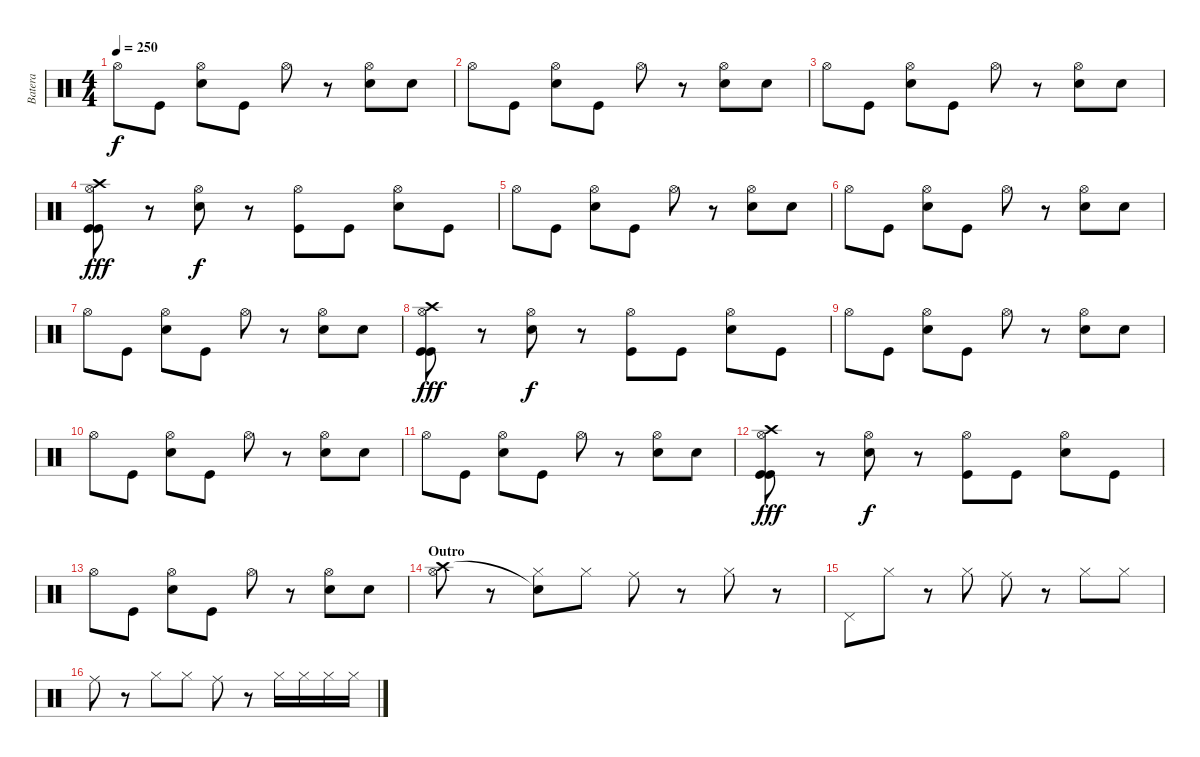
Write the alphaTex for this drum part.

\track ("Batera" "Batera") {instrument percussion}
\staff {score}
\articulation defaults
\ts (4 4)
\tempo 250
\clef neutral
\ks c "Hi-Hat (open)".8{dy f} "Kick (hit)".8
("Hi-Hat (open)" "Electric Snare (hit)").8 "Kick (hit)".8 "Hi-Hat (open)".8 r.8 ("Hi-Hat (open)" "Electric Snare (hit)").8 "Electric Snare (hit)".8 |
"Hi-Hat (open)".8 "Kick (hit)".8 ("Hi-Hat (open)" "Electric Snare (hit)").8 "Kick (hit)".8 "Hi-Hat (open)".8 r.8 ("Hi-Hat (open)" "Electric Snare (hit)").8 "Electric Snare (hit)".8 |
"Hi-Hat (open)".8 "Kick (hit)".8 ("Hi-Hat (open)" "Electric Snare (hit)").8 "Kick (hit)".8 "Hi-Hat (open)".8 r.8 ("Hi-Hat (open)" "Electric Snare (hit)").8 "Electric Snare (hit)".8 |
("Hi-Hat (open)" "Crash high (hit)" "Kick (hit)" "Kick (hit)").8{dy fff} r.8 ("Hi-Hat (open)" "Electric Snare (hit)").8{dy f} r.8 ("Hi-Hat (open)" "Kick (hit)").8 "Kick (hit)".8 ("Hi-Hat (open)" "Electric Snare (hit)").8 "Kick (hit)".8 |
"Hi-Hat (open)".8 "Kick (hit)".8 ("Hi-Hat (open)" "Electric Snare (hit)").8 "Kick (hit)".8 "Hi-Hat (open)".8 r.8 ("Hi-Hat (open)" "Electric Snare (hit)").8 "Electric Snare (hit)".8 |
"Hi-Hat (open)".8 "Kick (hit)".8 ("Hi-Hat (open)" "Electric Snare (hit)").8 "Kick (hit)".8 "Hi-Hat (open)".8 r.8 ("Hi-Hat (open)" "Electric Snare (hit)").8 "Electric Snare (hit)".8 |
"Hi-Hat (open)".8 "Kick (hit)".8 ("Hi-Hat (open)" "Electric Snare (hit)").8 "Kick (hit)".8 "Hi-Hat (open)".8 r.8 ("Hi-Hat (open)" "Electric Snare (hit)").8 "Electric Snare (hit)".8 |
("Hi-Hat (open)" "Crash high (hit)" "Kick (hit)" "Kick (hit)").8{dy fff} r.8 ("Hi-Hat (open)" "Electric Snare (hit)").8{dy f} r.8 ("Hi-Hat (open)" "Kick (hit)").8 "Kick (hit)".8 ("Hi-Hat (open)" "Electric Snare (hit)").8 "Kick (hit)".8 |
"Hi-Hat (open)".8 "Kick (hit)".8 ("Hi-Hat (open)" "Electric Snare (hit)").8 "Kick (hit)".8 "Hi-Hat (open)".8 r.8 ("Hi-Hat (open)" "Electric Snare (hit)").8 "Electric Snare (hit)".8 |
"Hi-Hat (open)".8 "Kick (hit)".8 ("Hi-Hat (open)" "Electric Snare (hit)").8 "Kick (hit)".8 "Hi-Hat (open)".8 r.8 ("Hi-Hat (open)" "Electric Snare (hit)").8 "Electric Snare (hit)".8 |
"Hi-Hat (open)".8 "Kick (hit)".8 ("Hi-Hat (open)" "Electric Snare (hit)").8 "Kick (hit)".8 "Hi-Hat (open)".8 r.8 ("Hi-Hat (open)" "Electric Snare (hit)").8 "Electric Snare (hit)".8 |
("Hi-Hat (open)" "Crash high (hit)" "Kick (hit)" "Kick (hit)").8{dy fff} r.8 ("Hi-Hat (open)" "Electric Snare (hit)").8{dy f} r.8 ("Hi-Hat (open)" "Kick (hit)").8 "Kick (hit)".8 ("Hi-Hat (open)" "Electric Snare (hit)").8 "Kick (hit)".8 |
"Hi-Hat (open)".8 "Kick (hit)".8 ("Hi-Hat (open)" "Electric Snare (hit)").8 "Kick (hit)".8 "Hi-Hat (open)".8 r.8 ("Hi-Hat (open)" "Electric Snare (hit)").8 "Electric Snare (hit)".8 |
\section ("" "Outro")
("Crash high (hit)" "Hi-Hat (open)").8 r.8 ("Snare (hit)"{t} "Hi-Hat (closed)").8 "Hi-Hat (closed)".8 "Ride (middle)".8 r.8 "Hi-Hat (closed)".8 r.8 |
"Pedal Hi-Hat (hit)".8 "Hi-Hat (closed)".8 r.8 "Hi-Hat (closed)".8 "Ride (middle)".8 r.8 "Hi-Hat (closed)".8 "Hi-Hat (closed)".8 |
"Ride (middle)".8 r.8 "Hi-Hat (closed)".8 "Hi-Hat (closed)".8 "Ride (middle)".8 r.8 "Hi-Hat (closed)".16 "Hi-Hat (closed)".16 "Hi-Hat (closed)".16 "Hi-Hat (closed)".16
